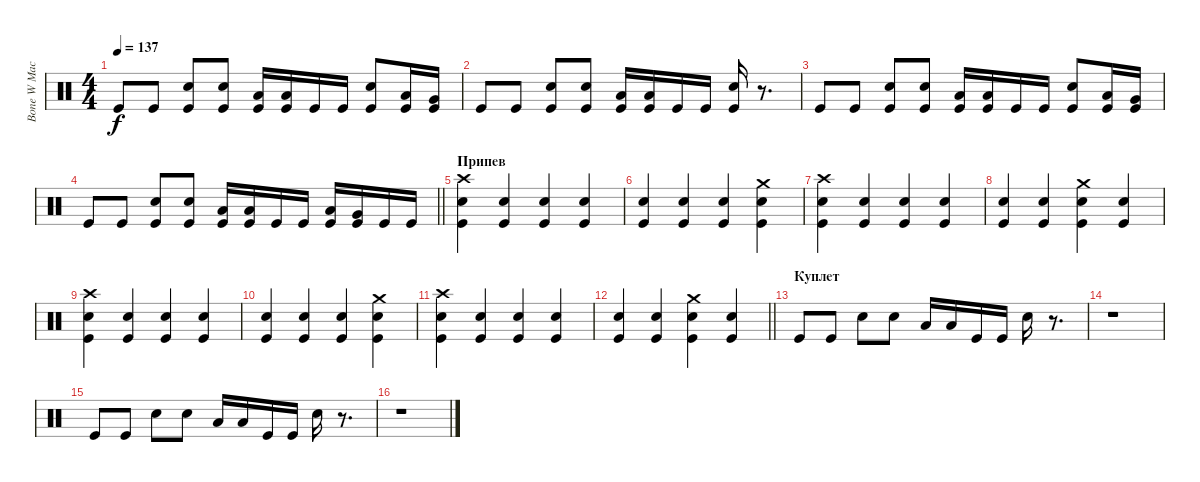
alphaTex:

\track ("Bone W Machine Drums" "Bone W Mac") {instrument percussion}
\staff {score}
\articulation defaults
\ts (4 4)
\tempo 137
\clef neutral
\ks c "Kick (hit)".8{dy f} "Kick (hit)".8
("Snare (hit) 2" "Kick (hit)").8 ("Snare (hit) 2" "Kick (hit)").8 ("Low Tom (hit)" "Kick (hit)").16 ("Low Tom (hit)" "Kick (hit)").16 "Kick (hit)".16 "Kick (hit)".16 ("Snare (hit) 2" "Kick (hit)").8 ("Low Tom (hit)" "Kick (hit)").16 ("Very Low Tom (hit)" "Kick (hit)").16 |
"Kick (hit)".8 "Kick (hit)".8 ("Snare (hit) 2" "Kick (hit)").8 ("Snare (hit) 2" "Kick (hit)").8 ("Low Tom (hit)" "Kick (hit)").16 ("Low Tom (hit)" "Kick (hit)").16 "Kick (hit)".16 "Kick (hit)".16 ("Snare (hit) 2" "Kick (hit)").16 r.8{d} |
"Kick (hit)".8 "Kick (hit)".8 ("Snare (hit) 2" "Kick (hit)").8 ("Snare (hit) 2" "Kick (hit)").8 ("Low Tom (hit)" "Kick (hit)").16 ("Low Tom (hit)" "Kick (hit)").16 "Kick (hit)".16 "Kick (hit)".16 ("Snare (hit) 2" "Kick (hit)").8 ("Low Tom (hit)" "Kick (hit)").16 ("Very Low Tom (hit)" "Kick (hit)").16 |
\barLineRight lightlight "Kick (hit)".8 "Kick (hit)".8
("Snare (hit) 2" "Kick (hit)").8 ("Snare (hit) 2" "Kick (hit)").8 ("Low Tom (hit)" "Kick (hit)").16 ("Low Tom (hit)" "Kick (hit)").16 "Kick (hit)".16 "Kick (hit)".16 ("Low Tom (hit)" "Kick (hit)").16 ("Very Low Tom (hit)" "Kick (hit)").16 "Kick (hit)".16 "Kick (hit)".16 |
\section ("" "Припев")
("Crash high (hit)" "Snare (hit) 2" "Kick (hit)").4 ("Snare (hit) 2" "Kick (hit)").4 ("Snare (hit) 2" "Kick (hit)").4 ("Snare (hit) 2" "Kick (hit)").4 |
("Snare (hit) 2" "Kick (hit)").4 ("Snare (hit) 2" "Kick (hit)").4 ("Snare (hit) 2" "Kick (hit)").4 ("Crash medium (hit)" "Snare (hit) 2" "Kick (hit)").4 |
("Crash high (hit)" "Snare (hit) 2" "Kick (hit)").4 ("Snare (hit) 2" "Kick (hit)").4 ("Snare (hit) 2" "Kick (hit)").4 ("Snare (hit) 2" "Kick (hit)").4 |
("Snare (hit) 2" "Kick (hit)").4 ("Snare (hit) 2" "Kick (hit)").4 ("Crash medium (hit)" "Snare (hit) 2" "Kick (hit)").4 ("Snare (hit) 2" "Kick (hit)").4 |
("Crash high (hit)" "Snare (hit) 2" "Kick (hit)").4 ("Snare (hit) 2" "Kick (hit)").4 ("Snare (hit) 2" "Kick (hit)").4 ("Snare (hit) 2" "Kick (hit)").4 |
("Snare (hit) 2" "Kick (hit)").4 ("Snare (hit) 2" "Kick (hit)").4 ("Snare (hit) 2" "Kick (hit)").4 ("Crash medium (hit)" "Snare (hit) 2" "Kick (hit)").4 |
("Crash high (hit)" "Snare (hit) 2" "Kick (hit)").4 ("Snare (hit) 2" "Kick (hit)").4 ("Snare (hit) 2" "Kick (hit)").4 ("Snare (hit) 2" "Kick (hit)").4 |
\barLineRight lightlight
("Snare (hit) 2" "Kick (hit)").4 ("Snare (hit) 2" "Kick (hit)").4 ("Crash medium (hit)" "Snare (hit) 2" "Kick (hit)").4 ("Snare (hit) 2" "Kick (hit)").4 |
\section ("" "Куплет")
"Kick (hit)".8 "Kick (hit)".8 "Snare (hit) 2".8 "Snare (hit) 2".8 "Low Tom (hit)".16 "Low Tom (hit)".16 "Kick (hit)".16 "Kick (hit)".16 "Snare (hit) 2".16 r.8{d} |
r.1 |
"Kick (hit)".8 "Kick (hit)".8 "Snare (hit) 2".8 "Snare (hit) 2".8 "Low Tom (hit)".16 "Low Tom (hit)".16 "Kick (hit)".16 "Kick (hit)".16 "Snare (hit) 2".16 r.8{d} |
r.1
